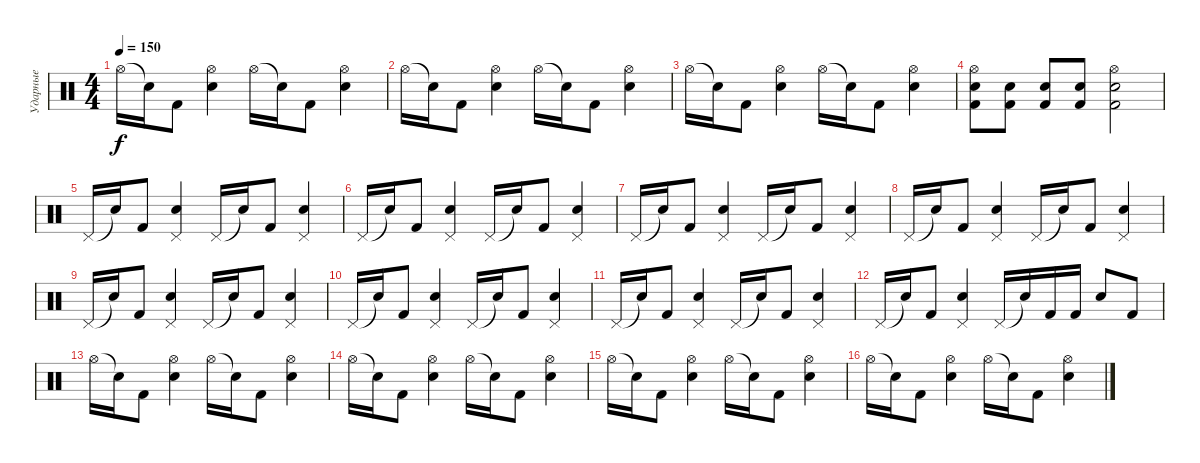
\track ("Ударные" "Ударные") {instrument percussion bank 25}
\staff {score}
\articulation defaults
\ts (4 4)
\tempo 150
\clef neutral
\ks c "Hi-Hat (open)".16{dy f} "Snare (hit)"{t}.16 "Kick (hit) 2".8
("Snare (hit) 2" "Hi-Hat (open)").4 "Hi-Hat (open)".16 "Snare (hit)"{t}.16 "Kick (hit) 2".8 ("Snare (hit) 2" "Hi-Hat (open)").4 |
"Hi-Hat (open)".16 "Snare (hit)"{t}.16 "Kick (hit) 2".8 ("Snare (hit) 2" "Hi-Hat (open)").4 "Hi-Hat (open)".16 "Snare (hit)"{t}.16 "Kick (hit) 2".8 ("Snare (hit) 2" "Hi-Hat (open)").4 |
"Hi-Hat (open)".16 "Snare (hit)"{t}.16 "Kick (hit) 2".8 ("Snare (hit) 2" "Hi-Hat (open)").4 "Hi-Hat (open)".16 "Snare (hit)"{t}.16 "Kick (hit) 2".8 ("Snare (hit) 2" "Hi-Hat (open)").4 |
("Kick (hit) 2" "Electric Snare (hit)" "Hi-Hat (open)").8 ("Kick (hit) 2" "Snare (hit) 2").8 ("Kick (hit) 2" "Snare (hit) 2").8 ("Kick (hit) 2" "Snare (hit) 2").8 ("Kick (hit) 2" "Electric Snare (hit)" "Hi-Hat (open)").2 |
"Pedal Hi-Hat (hit)".16 "Snare (hit)"{t}.16 "Kick (hit) 2".8 ("Snare (hit) 2" "Pedal Hi-Hat (hit)").4 "Pedal Hi-Hat (hit)".16 "Snare (hit)"{t}.16 "Kick (hit) 2".8 ("Snare (hit) 2" "Pedal Hi-Hat (hit)").4 |
"Pedal Hi-Hat (hit)".16 "Snare (hit)"{t}.16 "Kick (hit) 2".8 ("Snare (hit) 2" "Pedal Hi-Hat (hit)").4 "Pedal Hi-Hat (hit)".16 "Snare (hit)"{t}.16 "Kick (hit) 2".8 ("Snare (hit) 2" "Pedal Hi-Hat (hit)").4 |
"Pedal Hi-Hat (hit)".16 "Snare (hit)"{t}.16 "Kick (hit) 2".8 ("Snare (hit) 2" "Pedal Hi-Hat (hit)").4 "Pedal Hi-Hat (hit)".16 "Snare (hit)"{t}.16 "Kick (hit) 2".8 ("Snare (hit) 2" "Pedal Hi-Hat (hit)").4 |
"Pedal Hi-Hat (hit)".16 "Snare (hit)"{t}.16 "Kick (hit) 2".8 ("Snare (hit) 2" "Pedal Hi-Hat (hit)").4 "Pedal Hi-Hat (hit)".16 "Snare (hit)"{t}.16 "Kick (hit) 2".8 ("Snare (hit) 2" "Pedal Hi-Hat (hit)").4 |
"Pedal Hi-Hat (hit)".16 "Snare (hit)"{t}.16 "Kick (hit) 2".8 ("Snare (hit) 2" "Pedal Hi-Hat (hit)").4 "Pedal Hi-Hat (hit)".16 "Snare (hit)"{t}.16 "Kick (hit) 2".8 ("Snare (hit) 2" "Pedal Hi-Hat (hit)").4 |
"Pedal Hi-Hat (hit)".16 "Snare (hit)"{t}.16 "Kick (hit) 2".8 ("Snare (hit) 2" "Pedal Hi-Hat (hit)").4 "Pedal Hi-Hat (hit)".16 "Snare (hit)"{t}.16 "Kick (hit) 2".8 ("Snare (hit) 2" "Pedal Hi-Hat (hit)").4 |
"Pedal Hi-Hat (hit)".16 "Snare (hit)"{t}.16 "Kick (hit) 2".8 ("Snare (hit) 2" "Pedal Hi-Hat (hit)").4 "Pedal Hi-Hat (hit)".16 "Snare (hit)"{t}.16 "Kick (hit) 2".8 ("Snare (hit) 2" "Pedal Hi-Hat (hit)").4 |
"Pedal Hi-Hat (hit)".16 "Snare (hit)"{t}.16 "Kick (hit) 2".8 ("Snare (hit) 2" "Pedal Hi-Hat (hit)").4 "Pedal Hi-Hat (hit)".16 "Snare (hit)"{t}.16 "Kick (hit) 2".16 "Kick (hit) 2".16 "Electric Snare (hit)".8 "Kick (hit) 2".8 |
"Hi-Hat (open)".16 "Snare (hit)"{t}.16 "Kick (hit) 2".8 ("Snare (hit) 2" "Hi-Hat (open)").4 "Hi-Hat (open)".16 "Snare (hit)"{t}.16 "Kick (hit) 2".8 ("Snare (hit) 2" "Hi-Hat (open)").4 |
"Hi-Hat (open)".16 "Snare (hit)"{t}.16 "Kick (hit) 2".8 ("Snare (hit) 2" "Hi-Hat (open)").4 "Hi-Hat (open)".16 "Snare (hit)"{t}.16 "Kick (hit) 2".8 ("Snare (hit) 2" "Hi-Hat (open)").4 |
"Hi-Hat (open)".16 "Snare (hit)"{t}.16 "Kick (hit) 2".8 ("Snare (hit) 2" "Hi-Hat (open)").4 "Hi-Hat (open)".16 "Snare (hit)"{t}.16 "Kick (hit) 2".8 ("Snare (hit) 2" "Hi-Hat (open)").4 |
"Hi-Hat (open)".16 "Snare (hit)"{t}.16 "Kick (hit) 2".8 ("Snare (hit) 2" "Hi-Hat (open)").4 "Hi-Hat (open)".16 "Snare (hit)"{t}.16 "Kick (hit) 2".8 ("Snare (hit) 2" "Hi-Hat (open)").4
